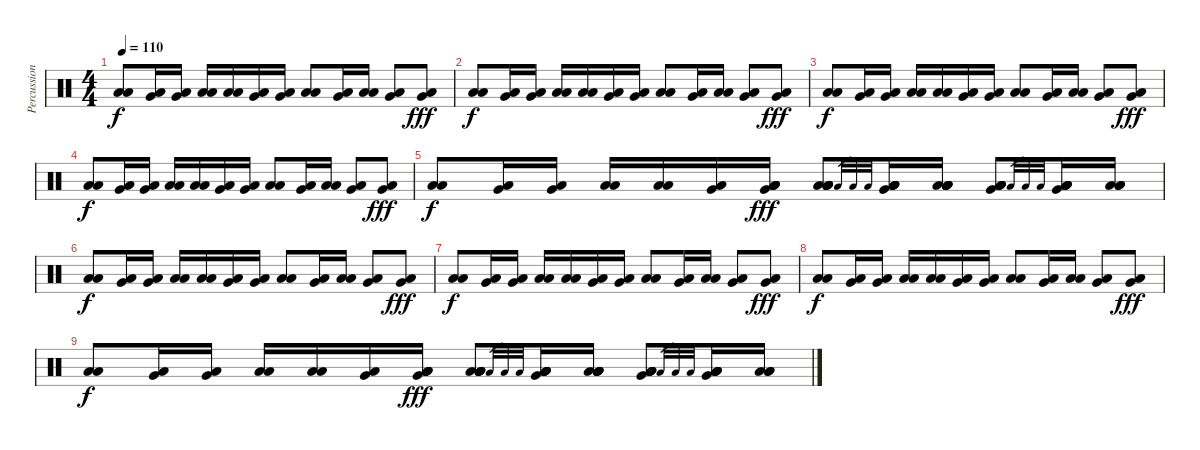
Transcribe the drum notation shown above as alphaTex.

\track ("Percussion" "Percussion") {instrument percussion}
\staff {score}
\articulation defaults
\ts (4 4)
\tempo 110
\clef neutral
\ks c
("Low Floor Tom (hit)" "Low Floor Tom (hit)").8{dy f} ("Low Tom (hit)" "Very Low Tom (hit)").16 ("Low Tom (hit)" "Very Low Tom (hit)").16 ("Low Floor Tom (hit)" "Low Floor Tom (hit)").16 ("Low Floor Tom (hit)" "Low Floor Tom (hit)").16 ("Low Tom (hit)" "Very Low Tom (hit)").16 ("Low Tom (hit)" "Very Low Tom (hit)").16 ("Low Floor Tom (hit)" "Low Floor Tom (hit)").8 ("Low Tom (hit)" "Very Low Tom (hit)").16 ("Low Tom (hit)" "Low Tom (hit)").16 ("Low Floor Tom (hit)" "Very Low Tom (hit)").8 ("Low Floor Tom (hit)" "Very Low Tom (hit)").8{dy fff} |
("Low Floor Tom (hit)" "Low Floor Tom (hit)").8{dy f} ("Low Tom (hit)" "Very Low Tom (hit)").16 ("Low Tom (hit)" "Very Low Tom (hit)").16 ("Low Floor Tom (hit)" "Low Floor Tom (hit)").16 ("Low Floor Tom (hit)" "Low Floor Tom (hit)").16 ("Low Tom (hit)" "Very Low Tom (hit)").16 ("Low Tom (hit)" "Very Low Tom (hit)").16 ("Low Floor Tom (hit)" "Low Floor Tom (hit)").8 ("Low Tom (hit)" "Very Low Tom (hit)").16 ("Low Tom (hit)" "Low Tom (hit)").16 ("Low Floor Tom (hit)" "Very Low Tom (hit)").8 ("Low Floor Tom (hit)" "Very Low Tom (hit)").8{dy fff} |
("Low Floor Tom (hit)" "Low Floor Tom (hit)").8{dy f} ("Low Tom (hit)" "Very Low Tom (hit)").16 ("Low Tom (hit)" "Very Low Tom (hit)").16 ("Low Floor Tom (hit)" "Low Floor Tom (hit)").16 ("Low Floor Tom (hit)" "Low Floor Tom (hit)").16 ("Low Tom (hit)" "Very Low Tom (hit)").16 ("Low Tom (hit)" "Very Low Tom (hit)").16 ("Low Floor Tom (hit)" "Low Floor Tom (hit)").8 ("Low Tom (hit)" "Very Low Tom (hit)").16 ("Low Tom (hit)" "Low Tom (hit)").16 ("Low Floor Tom (hit)" "Very Low Tom (hit)").8 ("Low Floor Tom (hit)" "Very Low Tom (hit)").8{dy fff} |
("Low Floor Tom (hit)" "Low Floor Tom (hit)").8{dy f} ("Low Tom (hit)" "Very Low Tom (hit)").16 ("Low Tom (hit)" "Very Low Tom (hit)").16 ("Low Floor Tom (hit)" "Low Floor Tom (hit)").16 ("Low Floor Tom (hit)" "Low Floor Tom (hit)").16 ("Low Tom (hit)" "Very Low Tom (hit)").16 ("Low Tom (hit)" "Very Low Tom (hit)").16 ("Low Floor Tom (hit)" "Low Floor Tom (hit)").8 ("Low Tom (hit)" "Very Low Tom (hit)").16 ("Low Tom (hit)" "Low Tom (hit)").16 ("Low Floor Tom (hit)" "Very Low Tom (hit)").8 ("Low Floor Tom (hit)" "Very Low Tom (hit)").8{dy fff} |
("Low Floor Tom (hit)" "Low Floor Tom (hit)").8{dy f} ("Low Tom (hit)" "Very Low Tom (hit)").16 ("Low Tom (hit)" "Very Low Tom (hit)").16 ("Low Floor Tom (hit)" "Low Floor Tom (hit)").16 ("Low Floor Tom (hit)" "Low Floor Tom (hit)").16 ("Low Tom (hit)" "Very Low Tom (hit)").16 ("Low Tom (hit)" "Very Low Tom (hit)" "Low Floor Tom (hit)" "Low Floor Tom (hit)" "Low Floor Tom (hit)").16{dy fff} ("Low Floor Tom (hit)" "Low Floor Tom (hit)" "Low Floor Tom (hit)" "Low Floor Tom (hit)" "Low Floor Tom (hit)").8 "Low Floor Tom (hit)".32{gr} "Low Floor Tom (hit)".32{gr} "Low Floor Tom (hit)".32{gr} ("Low Tom (hit)" "Very Low Tom (hit)" "Low Floor Tom (hit)" "Low Floor Tom (hit)" "Low Floor Tom (hit)").16 ("Low Tom (hit)" "Low Tom (hit)" "Low Floor Tom (hit)" "Low Floor Tom (hit)" "Low Floor Tom (hit)").16 ("Low Floor Tom (hit)" "Very Low Tom (hit)" "Low Floor Tom (hit)" "Low Floor Tom (hit)" "Low Floor Tom (hit)").8 "Low Floor Tom (hit)".32{gr} "Low Floor Tom (hit)".32{gr} "Low Floor Tom (hit)".32{gr} ("Low Floor Tom (hit)" "Very Low Tom (hit)" "Low Floor Tom (hit)" "Low Floor Tom (hit)" "Low Floor Tom (hit)").16 ("Low Floor Tom (hit)" "Low Floor Tom (hit)" "Low Floor Tom (hit)").16 |
("Low Floor Tom (hit)" "Low Floor Tom (hit)").8{dy f} ("Low Tom (hit)" "Very Low Tom (hit)").16 ("Low Tom (hit)" "Very Low Tom (hit)").16 ("Low Floor Tom (hit)" "Low Floor Tom (hit)").16 ("Low Floor Tom (hit)" "Low Floor Tom (hit)").16 ("Low Tom (hit)" "Very Low Tom (hit)").16 ("Low Tom (hit)" "Very Low Tom (hit)").16 ("Low Floor Tom (hit)" "Low Floor Tom (hit)").8 ("Low Tom (hit)" "Very Low Tom (hit)").16 ("Low Tom (hit)" "Low Tom (hit)").16 ("Low Floor Tom (hit)" "Very Low Tom (hit)").8 ("Low Floor Tom (hit)" "Very Low Tom (hit)").8{dy fff} |
("Low Floor Tom (hit)" "Low Floor Tom (hit)").8{dy f} ("Low Tom (hit)" "Very Low Tom (hit)").16 ("Low Tom (hit)" "Very Low Tom (hit)").16 ("Low Floor Tom (hit)" "Low Floor Tom (hit)").16 ("Low Floor Tom (hit)" "Low Floor Tom (hit)").16 ("Low Tom (hit)" "Very Low Tom (hit)").16 ("Low Tom (hit)" "Very Low Tom (hit)").16 ("Low Floor Tom (hit)" "Low Floor Tom (hit)").8 ("Low Tom (hit)" "Very Low Tom (hit)").16 ("Low Tom (hit)" "Low Tom (hit)").16 ("Low Floor Tom (hit)" "Very Low Tom (hit)").8 ("Low Floor Tom (hit)" "Very Low Tom (hit)").8{dy fff} |
("Low Floor Tom (hit)" "Low Floor Tom (hit)").8{dy f} ("Low Tom (hit)" "Very Low Tom (hit)").16 ("Low Tom (hit)" "Very Low Tom (hit)").16 ("Low Floor Tom (hit)" "Low Floor Tom (hit)").16 ("Low Floor Tom (hit)" "Low Floor Tom (hit)").16 ("Low Tom (hit)" "Very Low Tom (hit)").16 ("Low Tom (hit)" "Very Low Tom (hit)").16 ("Low Floor Tom (hit)" "Low Floor Tom (hit)").8 ("Low Tom (hit)" "Very Low Tom (hit)").16 ("Low Tom (hit)" "Low Tom (hit)").16 ("Low Floor Tom (hit)" "Very Low Tom (hit)").8 ("Low Floor Tom (hit)" "Very Low Tom (hit)").8{dy fff} |
("Low Floor Tom (hit)" "Low Floor Tom (hit)").8{dy f} ("Low Tom (hit)" "Very Low Tom (hit)").16 ("Low Tom (hit)" "Very Low Tom (hit)").16 ("Low Floor Tom (hit)" "Low Floor Tom (hit)").16 ("Low Floor Tom (hit)" "Low Floor Tom (hit)").16 ("Low Tom (hit)" "Very Low Tom (hit)").16 ("Low Tom (hit)" "Very Low Tom (hit)" "Low Floor Tom (hit)" "Low Floor Tom (hit)" "Low Floor Tom (hit)").16{dy fff} ("Low Floor Tom (hit)" "Low Floor Tom (hit)" "Low Floor Tom (hit)" "Low Floor Tom (hit)" "Low Floor Tom (hit)").8 "Low Floor Tom (hit)".32{gr} "Low Floor Tom (hit)".32{gr} "Low Floor Tom (hit)".32{gr} ("Low Tom (hit)" "Very Low Tom (hit)" "Low Floor Tom (hit)" "Low Floor Tom (hit)" "Low Floor Tom (hit)").16 ("Low Tom (hit)" "Low Tom (hit)" "Low Floor Tom (hit)" "Low Floor Tom (hit)" "Low Floor Tom (hit)").16 ("Low Floor Tom (hit)" "Very Low Tom (hit)" "Low Floor Tom (hit)" "Low Floor Tom (hit)" "Low Floor Tom (hit)").8 "Low Floor Tom (hit)".32{gr} "Low Floor Tom (hit)".32{gr} "Low Floor Tom (hit)".32{gr} ("Low Floor Tom (hit)" "Very Low Tom (hit)" "Low Floor Tom (hit)" "Low Floor Tom (hit)" "Low Floor Tom (hit)").16 ("Low Floor Tom (hit)" "Low Floor Tom (hit)" "Low Floor Tom (hit)").16
